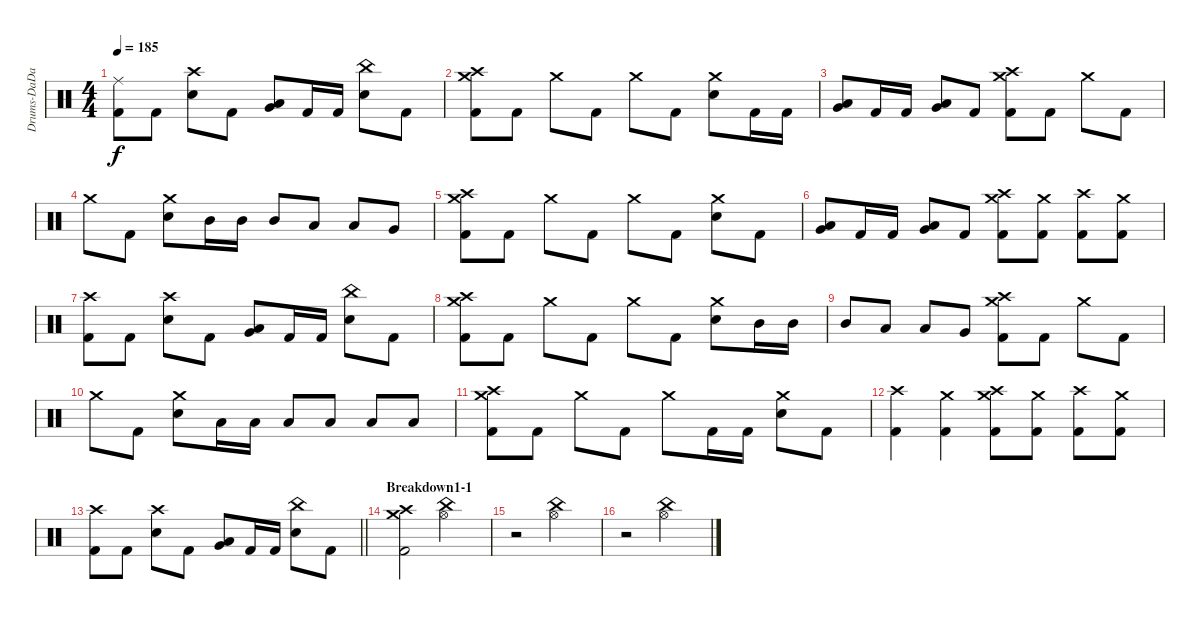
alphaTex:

\track ("Drums-DaDa" "Drums-DaDa") {instrument percussion}
\staff {score}
\articulation defaults
\ts (4 4)
\tempo 185
\clef neutral
\ks c
("Ride (middle)" "Kick (hit) 2").8{dy f} "Kick (hit) 2".8 ("Crash high (hit)" "Electric Snare (hit)").8 "Kick (hit) 2".8 ("Low Tom (hit)" "Very Low Tom (hit)").8 "Kick (hit) 2".16 "Kick (hit) 2".16 ("China (hit)" "Electric Snare (hit)").8 "Kick (hit) 2".8 |
("Crash medium (hit)" "Crash high (hit)" "Kick (hit) 2").8 "Kick (hit) 2".8 "Crash medium (hit)".8 "Kick (hit) 2".8 "Crash medium (hit)".8 "Kick (hit) 2".8 ("Crash medium (hit)" "Electric Snare (hit)").8 "Kick (hit) 2".16 "Kick (hit) 2".16 |
("Low Tom (hit)" "Very Low Tom (hit)").8 "Kick (hit) 2".16 "Kick (hit) 2".16 ("Very Low Tom (hit)" "Low Floor Tom (hit)").8 "Kick (hit) 2".8 ("Crash medium (hit)" "Crash high (hit)" "Kick (hit) 2").8 "Kick (hit) 2".8 "Crash medium (hit)".8 "Kick (hit) 2".8 |
"Crash medium (hit)".8 "Kick (hit) 2".8 ("Crash medium (hit)" "Electric Snare (hit)").8 "Mid Tom (hit)".16 "Mid Tom (hit)".16 "Mid Tom (hit)".8 "Low Tom (hit)".8 "Low Tom (hit)".8 "Very Low Tom (hit)".8 |
("Crash medium (hit)" "Crash high (hit)" "Kick (hit) 2").8 "Kick (hit) 2".8 "Crash medium (hit)".8 "Kick (hit) 2".8 "Crash medium (hit)".8 "Kick (hit) 2".8 ("Crash medium (hit)" "Electric Snare (hit)").8 "Kick (hit) 2".8 |
("Low Tom (hit)" "Very Low Tom (hit)").8 "Kick (hit) 2".16 "Kick (hit) 2".16 ("Very Low Tom (hit)" "Low Floor Tom (hit)").8 "Kick (hit) 2".8 ("Crash medium (hit)" "Crash high (hit)" "Kick (hit) 2").8 ("Crash medium (hit)" "Kick (hit) 2").8 ("Crash high (hit)" "Kick (hit) 2").8 ("Crash medium (hit)" "Kick (hit) 2").8 |
("Crash high (hit)" "Kick (hit) 2").8 "Kick (hit) 2".8 ("Crash high (hit)" "Electric Snare (hit)").8 "Kick (hit) 2".8 ("Low Tom (hit)" "Very Low Tom (hit)").8 "Kick (hit) 2".16 "Kick (hit) 2".16 ("China (hit)" "Electric Snare (hit)").8 "Kick (hit) 2".8 |
("Crash medium (hit)" "Crash high (hit)" "Kick (hit) 2").8 "Kick (hit) 2".8 "Crash medium (hit)".8 "Kick (hit) 2".8 "Crash medium (hit)".8 "Kick (hit) 2".8 ("Crash medium (hit)" "Electric Snare (hit)").8 "Mid Tom (hit)".16 "Mid Tom (hit)".16 |
"Mid Tom (hit)".8 "Low Tom (hit)".8 "Low Tom (hit)".8 "Very Low Tom (hit)".8 ("Crash medium (hit)" "Crash high (hit)" "Kick (hit) 2").8 "Kick (hit) 2".8 "Crash medium (hit)".8 "Kick (hit) 2".8 |
"Crash medium (hit)".8 "Kick (hit) 2".8 ("Crash medium (hit)" "Electric Snare (hit)").8 "Low Tom (hit)".16 "Low Tom (hit)".16 "Low Tom (hit)".8 "Low Tom (hit)".8 "Low Tom (hit)".8 "Low Tom (hit)".8 |
("Crash medium (hit)" "Crash high (hit)" "Kick (hit) 2").8 "Kick (hit) 2".8 "Crash medium (hit)".8 "Kick (hit) 2".8 "Crash medium (hit)".8 "Kick (hit) 2".16 "Kick (hit) 2".16 ("Crash medium (hit)" "Electric Snare (hit)").8 "Kick (hit) 2".8 |
("Crash high (hit)" "Kick (hit) 2").4 ("Crash medium (hit)" "Kick (hit) 2").4 ("Crash medium (hit)" "Crash high (hit)" "Kick (hit) 2").8 ("Crash medium (hit)" "Kick (hit) 2").8 ("Crash high (hit)" "Kick (hit) 2").8 ("Crash medium (hit)" "Kick (hit) 2").8 |
\barLineRight lightlight
("Crash high (hit)" "Kick (hit) 2").8 "Kick (hit) 2".8 ("Crash high (hit)" "Electric Snare (hit)").8 "Kick (hit) 2".8 ("Low Tom (hit)" "Very Low Tom (hit)").8 "Kick (hit) 2".16 "Kick (hit) 2".16 ("China (hit)" "Electric Snare (hit)").8 "Kick (hit) 2".8 |
\section ("" "Breakdown1-1")
("Crash high (hit)" "Crash medium (hit)" "Kick (hit) 2").2 ("China (hit)" "Hi-Hat (open)").2 |
r.2 ("China (hit)" "Hi-Hat (open)").2 |
r.2 ("China (hit)" "Hi-Hat (open)").2
